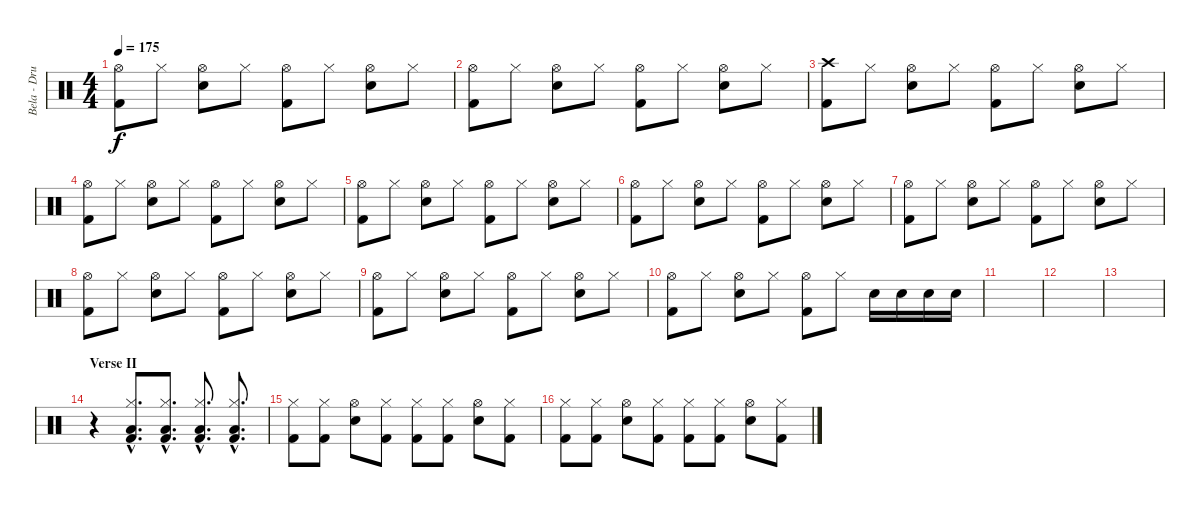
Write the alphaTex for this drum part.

\track ("Bela - Drums" "Bela - Dru") {instrument percussion}
\staff {score}
\articulation defaults
\ts (4 4)
\tempo 175
\clef neutral
\ks c
("Hi-Hat (open)" "Kick (hit) 2").8{dy f} "Hi-Hat (closed)".8 ("Hi-Hat (open)" "Electric Snare (hit)").8 "Hi-Hat (closed)".8 ("Hi-Hat (open)" "Kick (hit) 2").8 "Hi-Hat (closed)".8 ("Hi-Hat (open)" "Electric Snare (hit)").8 "Hi-Hat (closed)".8 |
("Hi-Hat (open)" "Kick (hit) 2").8 "Hi-Hat (closed)".8 ("Hi-Hat (open)" "Electric Snare (hit)").8 "Hi-Hat (closed)".8 ("Hi-Hat (open)" "Kick (hit) 2").8 "Hi-Hat (closed)".8 ("Hi-Hat (open)" "Electric Snare (hit)").8 "Hi-Hat (closed)".8 |
("Crash high (hit)" "Kick (hit) 2").8 "Hi-Hat (closed)".8 ("Hi-Hat (open)" "Electric Snare (hit)").8 "Hi-Hat (closed)".8 ("Hi-Hat (open)" "Kick (hit) 2").8 "Hi-Hat (closed)".8 ("Hi-Hat (open)" "Electric Snare (hit)").8 "Hi-Hat (closed)".8 |
("Hi-Hat (open)" "Kick (hit) 2").8 "Hi-Hat (closed)".8 ("Hi-Hat (open)" "Electric Snare (hit)").8 "Hi-Hat (closed)".8 ("Hi-Hat (open)" "Kick (hit) 2").8 "Hi-Hat (closed)".8 ("Hi-Hat (open)" "Electric Snare (hit)").8 "Hi-Hat (closed)".8 |
("Hi-Hat (open)" "Kick (hit) 2").8 "Hi-Hat (closed)".8 ("Hi-Hat (open)" "Electric Snare (hit)").8 "Hi-Hat (closed)".8 ("Hi-Hat (open)" "Kick (hit) 2").8 "Hi-Hat (closed)".8 ("Hi-Hat (open)" "Electric Snare (hit)").8 "Hi-Hat (closed)".8 |
("Hi-Hat (open)" "Kick (hit) 2").8 "Hi-Hat (closed)".8 ("Hi-Hat (open)" "Electric Snare (hit)").8 "Hi-Hat (closed)".8 ("Hi-Hat (open)" "Kick (hit) 2").8 "Hi-Hat (closed)".8 ("Hi-Hat (open)" "Electric Snare (hit)").8 "Hi-Hat (closed)".8 |
("Hi-Hat (open)" "Kick (hit) 2").8 "Hi-Hat (closed)".8 ("Hi-Hat (open)" "Electric Snare (hit)").8 "Hi-Hat (closed)".8 ("Hi-Hat (open)" "Kick (hit) 2").8 "Hi-Hat (closed)".8 ("Hi-Hat (open)" "Electric Snare (hit)").8 "Hi-Hat (closed)".8 |
("Hi-Hat (open)" "Kick (hit) 2").8 "Hi-Hat (closed)".8 ("Hi-Hat (open)" "Electric Snare (hit)").8 "Hi-Hat (closed)".8 ("Hi-Hat (open)" "Kick (hit) 2").8 "Hi-Hat (closed)".8 ("Hi-Hat (open)" "Electric Snare (hit)").8 "Hi-Hat (closed)".8 |
("Hi-Hat (open)" "Kick (hit) 2").8 "Hi-Hat (closed)".8 ("Hi-Hat (open)" "Electric Snare (hit)").8 "Hi-Hat (closed)".8 ("Hi-Hat (open)" "Kick (hit) 2").8 "Hi-Hat (closed)".8 ("Hi-Hat (open)" "Electric Snare (hit)").8 "Hi-Hat (closed)".8 |
("Hi-Hat (open)" "Kick (hit) 2").8 "Hi-Hat (closed)".8 ("Hi-Hat (open)" "Electric Snare (hit)").8 "Hi-Hat (closed)".8 ("Hi-Hat (open)" "Kick (hit) 2").8 "Hi-Hat (closed)".8 "Electric Snare (hit)".16 "Electric Snare (hit)".16 "Electric Snare (hit)".16 "Electric Snare (hit)".16 |
|
|
|
\section ("" "Verse II")
r.4 ("Hi-Hat (closed)"{hac} "Low Tom (hit)"{hac} "Kick (hit) 2"{hac}).8{d} ("Hi-Hat (closed)"{hac} "Low Tom (hit)"{hac} "Kick (hit) 2"{hac}).8{d} ("Hi-Hat (closed)"{hac} "Low Tom (hit)"{hac} "Kick (hit) 2"{hac}).8{d} ("Hi-Hat (closed)"{hac} "Low Tom (hit)"{hac} "Kick (hit) 2"{hac}).8{d} |
("Hi-Hat (closed)" "Kick (hit) 2").8 ("Hi-Hat (closed)" "Kick (hit) 2").8 ("Hi-Hat (open)" "Electric Snare (hit)").8 ("Hi-Hat (closed)" "Kick (hit) 2").8 ("Hi-Hat (closed)" "Kick (hit) 2").8 ("Hi-Hat (closed)" "Kick (hit) 2").8 ("Hi-Hat (open)" "Electric Snare (hit)").8 ("Hi-Hat (closed)" "Kick (hit) 2").8 |
("Hi-Hat (closed)" "Kick (hit) 2").8 ("Hi-Hat (closed)" "Kick (hit) 2").8 ("Hi-Hat (open)" "Electric Snare (hit)").8 ("Hi-Hat (closed)" "Kick (hit) 2").8 ("Hi-Hat (closed)" "Kick (hit) 2").8 ("Hi-Hat (closed)" "Kick (hit) 2").8 ("Hi-Hat (open)" "Electric Snare (hit)").8 ("Hi-Hat (closed)" "Kick (hit) 2").8
